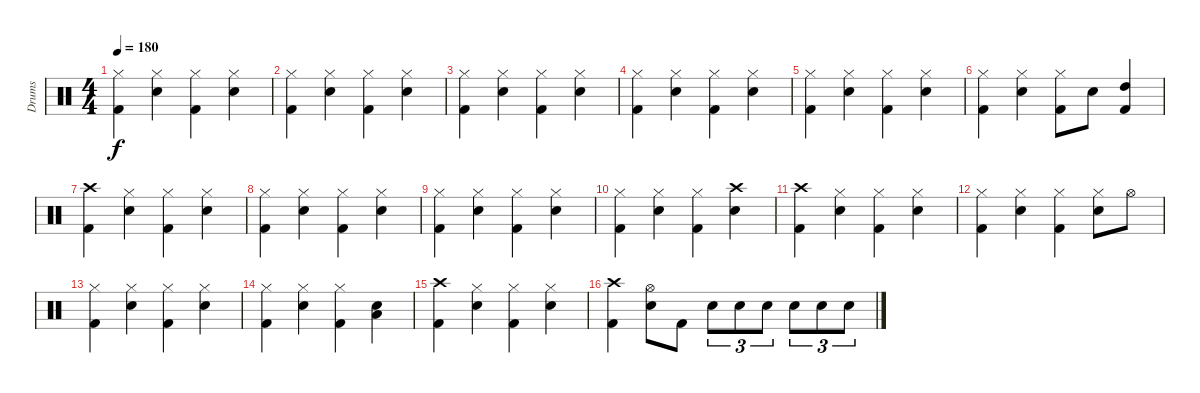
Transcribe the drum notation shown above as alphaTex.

\track ("Drums" "Drums") {instrument percussion}
\staff {score}
\articulation defaults
\ts (4 4)
\tempo 180
\clef neutral
\ks c
("Hi-Hat (closed)" "Kick (hit) 2").4{dy f} ("Hi-Hat (closed)" "Snare (hit) 2").4 ("Hi-Hat (closed)" "Kick (hit) 2").4 ("Hi-Hat (closed)" "Snare (hit) 2").4 |
("Hi-Hat (closed)" "Kick (hit) 2").4 ("Hi-Hat (closed)" "Snare (hit) 2").4 ("Hi-Hat (closed)" "Kick (hit) 2").4 ("Hi-Hat (closed)" "Snare (hit) 2").4 |
("Hi-Hat (closed)" "Kick (hit) 2").4 ("Hi-Hat (closed)" "Snare (hit) 2").4 ("Hi-Hat (closed)" "Kick (hit) 2").4 ("Hi-Hat (closed)" "Snare (hit) 2").4 |
("Hi-Hat (closed)" "Kick (hit) 2").4 ("Hi-Hat (closed)" "Snare (hit) 2").4 ("Hi-Hat (closed)" "Kick (hit) 2").4 ("Hi-Hat (closed)" "Snare (hit) 2").4 |
("Hi-Hat (closed)" "Kick (hit) 2").4 ("Hi-Hat (closed)" "Snare (hit) 2").4 ("Hi-Hat (closed)" "Kick (hit) 2").4 ("Hi-Hat (closed)" "Snare (hit) 2").4 |
("Hi-Hat (closed)" "Kick (hit) 2").4 ("Hi-Hat (closed)" "Snare (hit) 2").4 ("Hi-Hat (closed)" "Kick (hit) 2").8 "Snare (hit) 2".8 ("High Tom (hit)" "Kick (hit) 2").4 |
("Crash high (hit)" "Kick (hit) 2").4 ("Hi-Hat (closed)" "Snare (hit) 2").4 ("Hi-Hat (closed)" "Kick (hit) 2").4 ("Hi-Hat (closed)" "Snare (hit) 2").4 |
("Hi-Hat (closed)" "Kick (hit) 2").4 ("Hi-Hat (closed)" "Snare (hit) 2").4 ("Hi-Hat (closed)" "Kick (hit) 2").4 ("Hi-Hat (closed)" "Snare (hit) 2").4 |
("Hi-Hat (closed)" "Kick (hit) 2").4 ("Hi-Hat (closed)" "Snare (hit) 2").4 ("Hi-Hat (closed)" "Kick (hit) 2").4 ("Hi-Hat (closed)" "Snare (hit) 2").4 |
("Hi-Hat (closed)" "Kick (hit) 2").4 ("Hi-Hat (closed)" "Snare (hit) 2").4 ("Hi-Hat (closed)" "Kick (hit) 2").4 ("Crash high (hit)" "Snare (hit) 2").4 |
("Crash high (hit)" "Kick (hit) 2").4 ("Hi-Hat (closed)" "Snare (hit) 2").4 ("Hi-Hat (closed)" "Kick (hit) 2").4 ("Hi-Hat (closed)" "Snare (hit) 2").4 |
("Hi-Hat (closed)" "Kick (hit) 2").4 ("Hi-Hat (closed)" "Snare (hit) 2").4 ("Hi-Hat (closed)" "Kick (hit) 2").4 ("Hi-Hat (closed)" "Snare (hit) 2").8 "Hi-Hat (open)".8 |
("Hi-Hat (closed)" "Kick (hit) 2").4 ("Hi-Hat (closed)" "Snare (hit) 2").4 ("Hi-Hat (closed)" "Kick (hit) 2").4 ("Hi-Hat (closed)" "Snare (hit) 2").4 |
("Hi-Hat (closed)" "Kick (hit) 2").4 ("Hi-Hat (closed)" "Snare (hit) 2").4 ("Hi-Hat (closed)" "Kick (hit) 2").4 ("Snare (hit) 2" "Low Tom (hit)").4 |
("Crash high (hit)" "Kick (hit) 2").4 ("Hi-Hat (closed)" "Snare (hit) 2").4 ("Hi-Hat (closed)" "Kick (hit) 2").4 ("Hi-Hat (closed)" "Snare (hit) 2").4 |
("Crash high (hit)" "Kick (hit) 2").4 ("Hi-Hat (open)" "Snare (hit) 2").8 "Kick (hit) 2".8 "Snare (hit) 2".8{tu (3 2)} "Snare (hit) 2".8{tu (3 2)} "Snare (hit) 2".8{tu (3 2)} "Snare (hit) 2".8{tu (3 2)} "Snare (hit) 2".8{tu (3 2)} "Snare (hit) 2".8{tu (3 2)}
